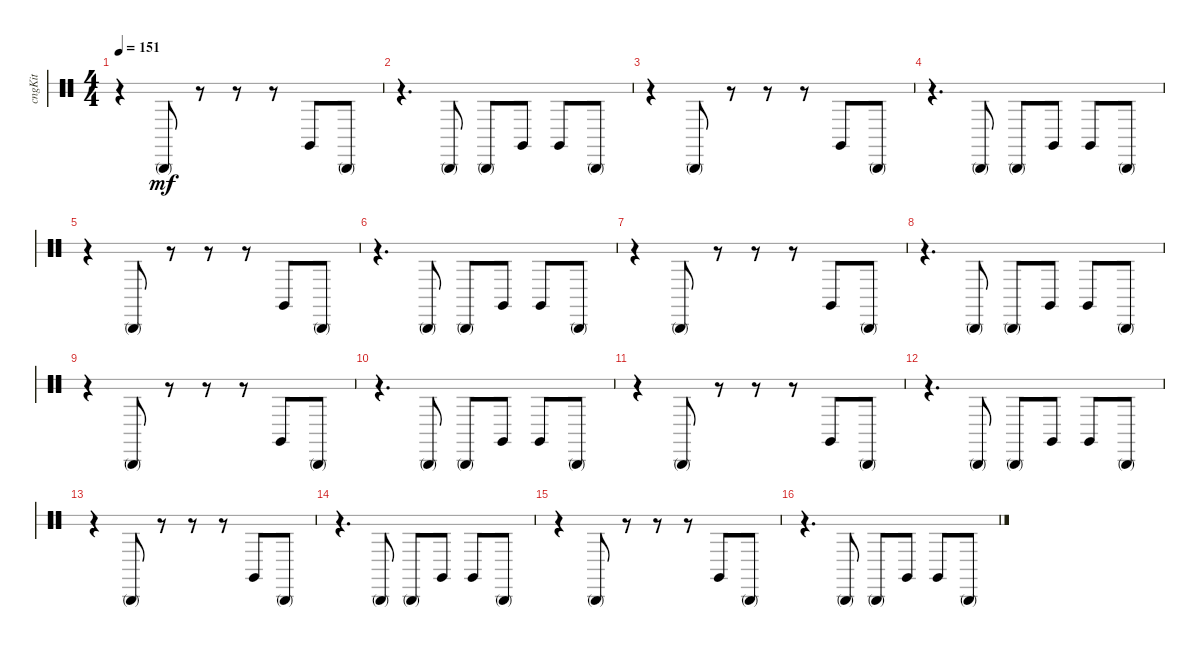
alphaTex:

\bracketExtendMode groupsimilarinstruments
\track ("Congas" "cngKit") {instrument percussion}
\staff {score 2}
\articulation defaults
\ts (4 4)
\tempo 151
\clef neutral
\ks aminor
r.4{dy mf} "Conga high (mute)".8 r.8 r.8 r.8 "Conga high (hit)".8 "Conga high (mute)".8 |
r.4{d} "Conga high (mute)".8 "Conga high (mute)".8 "Conga high (hit)".8 "Conga high (hit)".8 "Conga high (mute)".8 |
r.4 "Conga high (mute)".8 r.8 r.8 r.8 "Conga high (hit)".8 "Conga high (mute)".8 |
r.4{d} "Conga high (mute)".8 "Conga high (mute)".8 "Conga high (hit)".8 "Conga high (hit)".8 "Conga high (mute)".8 |
r.4 "Conga high (mute)".8 r.8 r.8 r.8 "Conga high (hit)".8 "Conga high (mute)".8 |
r.4{d} "Conga high (mute)".8 "Conga high (mute)".8 "Conga high (hit)".8 "Conga high (hit)".8 "Conga high (mute)".8 |
r.4 "Conga high (mute)".8 r.8 r.8 r.8 "Conga high (hit)".8 "Conga high (mute)".8 |
r.4{d} "Conga high (mute)".8 "Conga high (mute)".8 "Conga high (hit)".8 "Conga high (hit)".8 "Conga high (mute)".8 |
r.4 "Conga high (mute)".8 r.8 r.8 r.8 "Conga high (hit)".8 "Conga high (mute)".8 |
r.4{d} "Conga high (mute)".8 "Conga high (mute)".8 "Conga high (hit)".8 "Conga high (hit)".8 "Conga high (mute)".8 |
r.4 "Conga high (mute)".8 r.8 r.8 r.8 "Conga high (hit)".8 "Conga high (mute)".8 |
r.4{d} "Conga high (mute)".8 "Conga high (mute)".8 "Conga high (hit)".8 "Conga high (hit)".8 "Conga high (mute)".8 |
r.4 "Conga high (mute)".8 r.8 r.8 r.8 "Conga high (hit)".8 "Conga high (mute)".8 |
r.4{d} "Conga high (mute)".8 "Conga high (mute)".8 "Conga high (hit)".8 "Conga high (hit)".8 "Conga high (mute)".8 |
r.4 "Conga high (mute)".8 r.8 r.8 r.8 "Conga high (hit)".8 "Conga high (mute)".8 |
r.4{d} "Conga high (mute)".8 "Conga high (mute)".8 "Conga high (hit)".8 "Conga high (hit)".8 "Conga high (mute)".8
